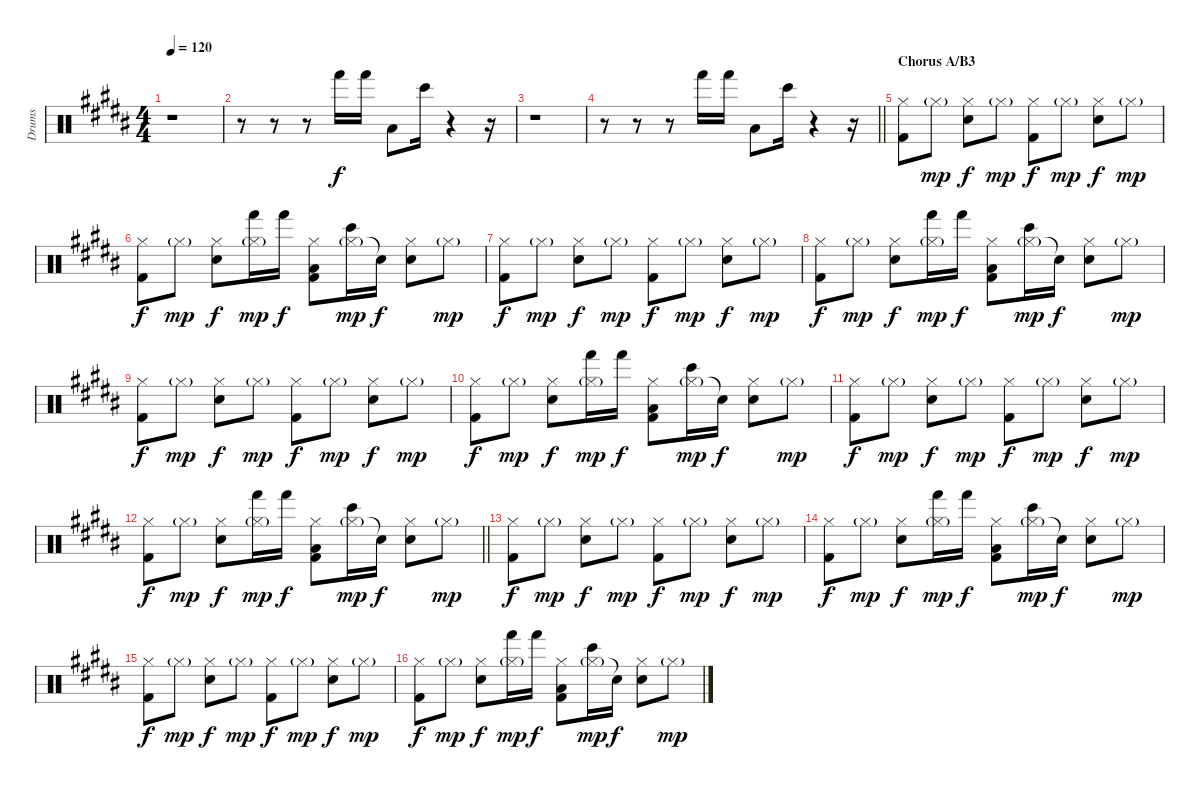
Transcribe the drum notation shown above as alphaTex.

\track ("Drums" "Drums") {instrument percussion}
\staff {score}
\articulation defaults
\ts (4 4)
\tempo 120
\clef neutral
\ks g#minor
r.1{dy f} |
r.8 r.8 r.8 "Hand (hit)".16 "Hand (hit)".16 "Low Tom (hit)".8 "Bongo High (hit)".16 r.4 r.16 |
r.1 |
\barLineRight lightlight
r.8 r.8 r.8 "Hand (hit)".16 "Hand (hit)".16 "Low Tom (hit)".8 "Bongo High (hit)".16 r.4 r.16 |
\section ("" "Chorus A/B3")
("Hi-Hat (closed)" "Kick (hit) 2").8 "Hi-Hat (closed)"{g}.8{dy mp} ("Hi-Hat (closed)" "Electric Snare (hit)").8{dy f} "Hi-Hat (closed)"{g}.8{dy mp} ("Hi-Hat (closed)" "Kick (hit) 2").8{dy f} "Hi-Hat (closed)"{g}.8{dy mp} ("Hi-Hat (closed)" "Electric Snare (hit)").8{dy f} "Hi-Hat (closed)"{g}.8{dy mp} |
("Hi-Hat (closed)" "Kick (hit) 2").8{dy f} "Hi-Hat (closed)"{g}.8{dy mp} ("Hi-Hat (closed)" "Electric Snare (hit)").8{dy f} ("Hi-Hat (closed)"{g} "Hand (hit)").16{dy mp} "Hand (hit)".16{dy f} ("Hi-Hat (closed)" "Low Tom (hit)" "Kick (hit) 2").8 ("Hi-Hat (closed)"{g} "Bongo High (hit)").16{dy mp} "Snare (hit)"{t}.16{dy f} ("Hi-Hat (closed)" "Electric Snare (hit)").8 "Hi-Hat (closed)"{g}.8{dy mp} |
("Hi-Hat (closed)" "Kick (hit) 2").8{dy f} "Hi-Hat (closed)"{g}.8{dy mp} ("Hi-Hat (closed)" "Electric Snare (hit)").8{dy f} "Hi-Hat (closed)"{g}.8{dy mp} ("Hi-Hat (closed)" "Kick (hit) 2").8{dy f} "Hi-Hat (closed)"{g}.8{dy mp} ("Hi-Hat (closed)" "Electric Snare (hit)").8{dy f} "Hi-Hat (closed)"{g}.8{dy mp} |
("Hi-Hat (closed)" "Kick (hit) 2").8{dy f} "Hi-Hat (closed)"{g}.8{dy mp} ("Hi-Hat (closed)" "Electric Snare (hit)").8{dy f} ("Hi-Hat (closed)"{g} "Hand (hit)").16{dy mp} "Hand (hit)".16{dy f} ("Hi-Hat (closed)" "Low Tom (hit)" "Kick (hit) 2").8 ("Hi-Hat (closed)"{g} "Bongo High (hit)").16{dy mp} "Snare (hit)"{t}.16{dy f} ("Hi-Hat (closed)" "Electric Snare (hit)").8 "Hi-Hat (closed)"{g}.8{dy mp} |
("Hi-Hat (closed)" "Kick (hit) 2").8{dy f} "Hi-Hat (closed)"{g}.8{dy mp} ("Hi-Hat (closed)" "Electric Snare (hit)").8{dy f} "Hi-Hat (closed)"{g}.8{dy mp} ("Hi-Hat (closed)" "Kick (hit) 2").8{dy f} "Hi-Hat (closed)"{g}.8{dy mp} ("Hi-Hat (closed)" "Electric Snare (hit)").8{dy f} "Hi-Hat (closed)"{g}.8{dy mp} |
("Hi-Hat (closed)" "Kick (hit) 2").8{dy f} "Hi-Hat (closed)"{g}.8{dy mp} ("Hi-Hat (closed)" "Electric Snare (hit)").8{dy f} ("Hi-Hat (closed)"{g} "Hand (hit)").16{dy mp} "Hand (hit)".16{dy f} ("Hi-Hat (closed)" "Low Tom (hit)" "Kick (hit) 2").8 ("Hi-Hat (closed)"{g} "Bongo High (hit)").16{dy mp} "Snare (hit)"{t}.16{dy f} ("Hi-Hat (closed)" "Electric Snare (hit)").8 "Hi-Hat (closed)"{g}.8{dy mp} |
("Hi-Hat (closed)" "Kick (hit) 2").8{dy f} "Hi-Hat (closed)"{g}.8{dy mp} ("Hi-Hat (closed)" "Electric Snare (hit)").8{dy f} "Hi-Hat (closed)"{g}.8{dy mp} ("Hi-Hat (closed)" "Kick (hit) 2").8{dy f} "Hi-Hat (closed)"{g}.8{dy mp} ("Hi-Hat (closed)" "Electric Snare (hit)").8{dy f} "Hi-Hat (closed)"{g}.8{dy mp} |
\barLineRight lightlight
("Hi-Hat (closed)" "Kick (hit) 2").8{dy f} "Hi-Hat (closed)"{g}.8{dy mp} ("Hi-Hat (closed)" "Electric Snare (hit)").8{dy f} ("Hi-Hat (closed)"{g} "Hand (hit)").16{dy mp} "Hand (hit)".16{dy f} ("Hi-Hat (closed)" "Low Tom (hit)" "Kick (hit) 2").8 ("Hi-Hat (closed)"{g} "Bongo High (hit)").16{dy mp} "Snare (hit)"{t}.16{dy f} ("Hi-Hat (closed)" "Electric Snare (hit)").8 "Hi-Hat (closed)"{g}.8{dy mp} |
("Hi-Hat (closed)" "Kick (hit) 2").8{dy f} "Hi-Hat (closed)"{g}.8{dy mp} ("Hi-Hat (closed)" "Electric Snare (hit)").8{dy f} "Hi-Hat (closed)"{g}.8{dy mp} ("Hi-Hat (closed)" "Kick (hit) 2").8{dy f} "Hi-Hat (closed)"{g}.8{dy mp} ("Hi-Hat (closed)" "Electric Snare (hit)").8{dy f} "Hi-Hat (closed)"{g}.8{dy mp} |
("Hi-Hat (closed)" "Kick (hit) 2").8{dy f} "Hi-Hat (closed)"{g}.8{dy mp} ("Hi-Hat (closed)" "Electric Snare (hit)").8{dy f} ("Hi-Hat (closed)"{g} "Hand (hit)").16{dy mp} "Hand (hit)".16{dy f} ("Hi-Hat (closed)" "Low Tom (hit)" "Kick (hit) 2").8 ("Hi-Hat (closed)"{g} "Bongo High (hit)").16{dy mp} "Snare (hit)"{t}.16{dy f} ("Hi-Hat (closed)" "Electric Snare (hit)").8 "Hi-Hat (closed)"{g}.8{dy mp} |
("Hi-Hat (closed)" "Kick (hit) 2").8{dy f} "Hi-Hat (closed)"{g}.8{dy mp} ("Hi-Hat (closed)" "Electric Snare (hit)").8{dy f} "Hi-Hat (closed)"{g}.8{dy mp} ("Hi-Hat (closed)" "Kick (hit) 2").8{dy f} "Hi-Hat (closed)"{g}.8{dy mp} ("Hi-Hat (closed)" "Electric Snare (hit)").8{dy f} "Hi-Hat (closed)"{g}.8{dy mp} |
("Hi-Hat (closed)" "Kick (hit) 2").8{dy f} "Hi-Hat (closed)"{g}.8{dy mp} ("Hi-Hat (closed)" "Electric Snare (hit)").8{dy f} ("Hi-Hat (closed)"{g} "Hand (hit)").16{dy mp} "Hand (hit)".16{dy f} ("Hi-Hat (closed)" "Low Tom (hit)" "Kick (hit) 2").8 ("Hi-Hat (closed)"{g} "Bongo High (hit)").16{dy mp} "Snare (hit)"{t}.16{dy f} ("Hi-Hat (closed)" "Electric Snare (hit)").8 "Hi-Hat (closed)"{g}.8{dy mp}
